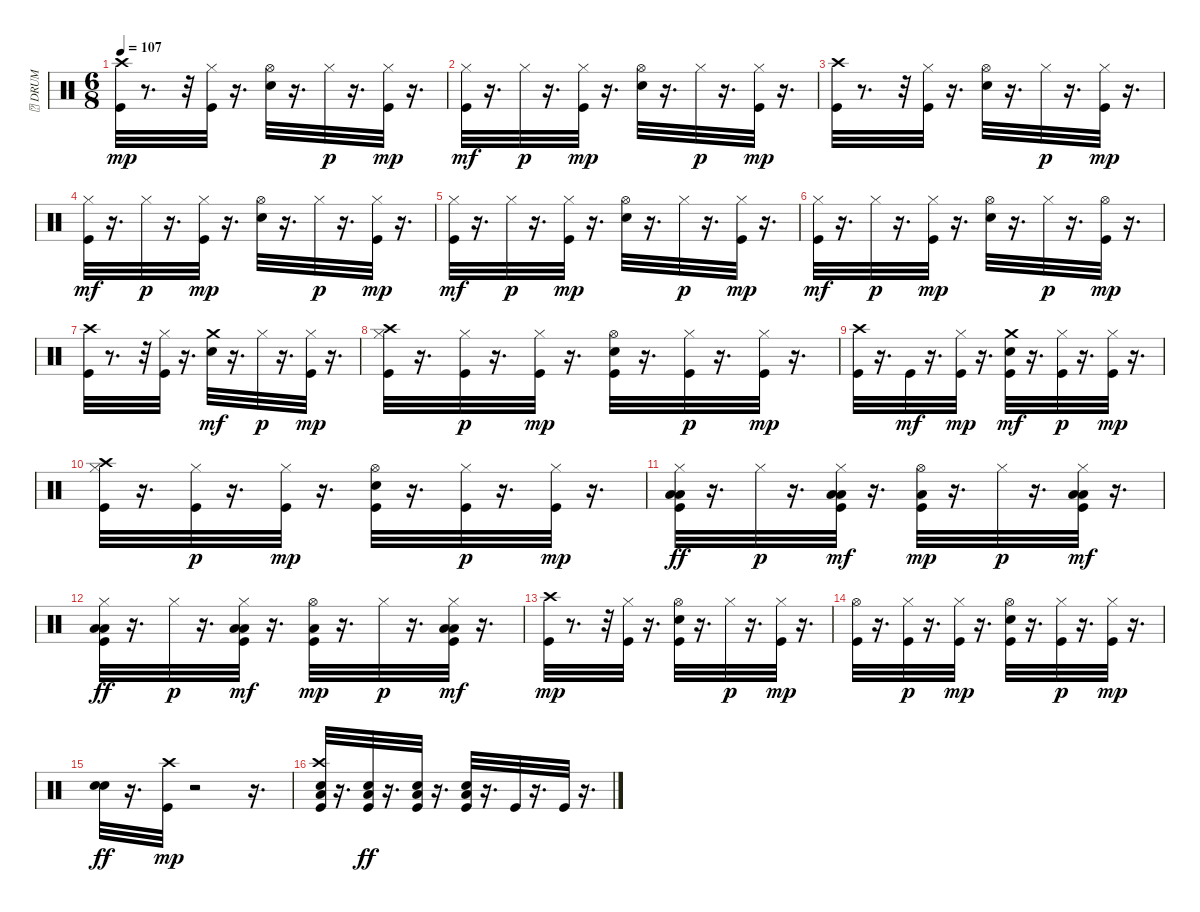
\track ("\t DRUM" "\t DRUM") {instrument percussion}
\staff {score}
\articulation defaults
\ts (6 8)
\tempo 107
\clef neutral
\ks c
("Kick (hit)" "Crash high (hit)").32{dy mp} r.8{d} r.32 ("Kick (hit)" "Hi-Hat (closed)").32 r.16{d} ("Electric Snare (hit)" "Hi-Hat (open)").32 r.16{d} "Hi-Hat (closed)".32{dy p} r.16{d} ("Kick (hit)" "Hi-Hat (closed)").32{dy mp} r.16{d} |
("Kick (hit)" "Hi-Hat (closed)").32{dy mf} r.16{d} "Hi-Hat (closed)".32{dy p} r.16{d} ("Kick (hit)" "Hi-Hat (closed)").32{dy mp} r.16{d} ("Electric Snare (hit)" "Hi-Hat (open)").32 r.16{d} "Hi-Hat (closed)".32{dy p} r.16{d} ("Kick (hit)" "Hi-Hat (closed)").32{dy mp} r.16{d} |
("Kick (hit)" "Crash high (hit)").32 r.8{d} r.32 ("Kick (hit)" "Hi-Hat (closed)").32 r.16{d} ("Electric Snare (hit)" "Hi-Hat (open)").32 r.16{d} "Hi-Hat (closed)".32{dy p} r.16{d} ("Kick (hit)" "Hi-Hat (closed)").32{dy mp} r.16{d} |
("Kick (hit)" "Hi-Hat (closed)").32{dy mf} r.16{d} "Hi-Hat (closed)".32{dy p} r.16{d} ("Kick (hit)" "Hi-Hat (closed)").32{dy mp} r.16{d} ("Electric Snare (hit)" "Hi-Hat (open)").32 r.16{d} "Hi-Hat (closed)".32{dy p} r.16{d} ("Kick (hit)" "Hi-Hat (closed)").32{dy mp} r.16{d} |
("Kick (hit)" "Hi-Hat (closed)").32{dy mf} r.16{d} "Hi-Hat (closed)".32{dy p} r.16{d} ("Kick (hit)" "Hi-Hat (closed)").32{dy mp} r.16{d} ("Electric Snare (hit)" "Hi-Hat (open)").32 r.16{d} "Hi-Hat (closed)".32{dy p} r.16{d} ("Kick (hit)" "Hi-Hat (closed)").32{dy mp} r.16{d} |
("Kick (hit)" "Hi-Hat (closed)").32{dy mf} r.16{d} "Hi-Hat (closed)".32{dy p} r.16{d} ("Kick (hit)" "Hi-Hat (closed)").32{dy mp} r.16{d} ("Electric Snare (hit)" "Hi-Hat (open)").32 r.16{d} "Hi-Hat (closed)".32{dy p} r.16{d} ("Kick (hit)" "Hi-Hat (open)").32{dy mp} r.16{d} |
("Kick (hit)" "Crash high (hit)").32 r.8{d} r.32 ("Kick (hit)" "Hi-Hat (closed)").32 r.16{d} ("Electric Snare (hit)" "Crash medium (hit)").32{dy mf} r.16{d} "Hi-Hat (closed)".32{dy p} r.16{d} ("Kick (hit)" "Hi-Hat (closed)").32{dy mp} r.16{d} |
("Kick (hit)" "Hi-Hat (closed)" "Crash high (hit)").32 r.16{d} ("Kick (hit)" "Hi-Hat (closed)").32{dy p} r.16{d} ("Kick (hit)" "Hi-Hat (closed)").32{dy mp} r.16{d} ("Kick (hit)" "Electric Snare (hit)" "Hi-Hat (open)").32 r.16{d} ("Kick (hit)" "Hi-Hat (closed)").32{dy p} r.16{d} ("Kick (hit)" "Hi-Hat (closed)").32{dy mp} r.16{d} |
("Kick (hit)" "Crash high (hit)").32 r.16{d} "Kick (hit)".32{dy mf} r.16{d} ("Kick (hit)" "Hi-Hat (closed)").32{dy mp} r.16{d} ("Kick (hit)" "Electric Snare (hit)" "Crash medium (hit)").32{dy mf} r.16{d} ("Kick (hit)" "Hi-Hat (closed)").32{dy p} r.16{d} ("Kick (hit)" "Hi-Hat (closed)").32{dy mp} r.16{d} |
("Kick (hit)" "Hi-Hat (closed)" "Crash high (hit)").32 r.16{d} ("Kick (hit)" "Hi-Hat (closed)").32{dy p} r.16{d} ("Kick (hit)" "Hi-Hat (closed)").32{dy mp} r.16{d} ("Kick (hit)" "Electric Snare (hit)" "Hi-Hat (open)").32 r.16{d} ("Kick (hit)" "Hi-Hat (closed)").32{dy p} r.16{d} ("Kick (hit)" "Hi-Hat (closed)").32{dy mp} r.16{d} |
("Kick (hit)" "Low Floor Tom (hit)" "Hi-Hat (closed)" "Low Tom (hit)").32{dy ff} r.16{d} "Hi-Hat (closed)".32{dy p} r.16{d} ("Kick (hit)" "Low Floor Tom (hit)" "Hi-Hat (closed)" "Low Tom (hit)").32{dy mf} r.16{d} ("Kick (hit)" "Low Floor Tom (hit)" "Hi-Hat (open)").32{dy mp} r.16{d} "Hi-Hat (closed)".32{dy p} r.16{d} ("Kick (hit)" "Low Floor Tom (hit)" "Hi-Hat (closed)" "Low Tom (hit)").32{dy mf} r.16{d} |
("Kick (hit)" "Low Floor Tom (hit)" "Hi-Hat (closed)" "Low Tom (hit)").32{dy ff} r.16{d} "Hi-Hat (closed)".32{dy p} r.16{d} ("Kick (hit)" "Low Floor Tom (hit)" "Hi-Hat (closed)" "Low Tom (hit)").32{dy mf} r.16{d} ("Kick (hit)" "Low Floor Tom (hit)" "Hi-Hat (open)").32{dy mp} r.16{d} "Hi-Hat (closed)".32{dy p} r.16{d} ("Kick (hit)" "Low Floor Tom (hit)" "Hi-Hat (closed)" "Low Tom (hit)").32{dy mf} r.16{d} |
("Kick (hit)" "Crash high (hit)").32{dy mp} r.8{d} r.32 ("Kick (hit)" "Hi-Hat (closed)").32 r.16{d} ("Kick (hit)" "Electric Snare (hit)" "Hi-Hat (open)").32 r.16{d} "Hi-Hat (closed)".32{dy p} r.16{d} ("Kick (hit)" "Hi-Hat (closed)").32{dy mp} r.16{d} |
("Kick (hit)" "Hi-Hat (open)").32 r.16{d} ("Kick (hit)" "Hi-Hat (closed)").32{dy p} r.16{d} ("Kick (hit)" "Hi-Hat (closed)").32{dy mp} r.16{d} ("Kick (hit)" "Electric Snare (hit)" "Hi-Hat (open)").32 r.16{d} ("Kick (hit)" "Hi-Hat (closed)").32{dy p} r.16{d} ("Kick (hit)" "Hi-Hat (closed)").32{dy mp} r.16{d} |
("Electric Snare (hit)" "Electric Snare (hit)").32{dy ff} r.16{d} ("Kick (hit)" "Crash high (hit)").32{dy mp} r.2 r.16{d} |
("Kick (hit)" "Electric Snare (hit)" "Low Floor Tom (hit)" "Crash high (hit)").32 r.16{d} ("Kick (hit)" "Electric Snare (hit)" "Low Floor Tom (hit)").32{dy ff} r.16{d} ("Kick (hit)" "Electric Snare (hit)" "Low Floor Tom (hit)").32 r.16{d} ("Kick (hit)" "Electric Snare (hit)" "Low Floor Tom (hit)").32 r.16{d} "Kick (hit)".32 r.16{d} "Kick (hit)".32 r.16{d}
